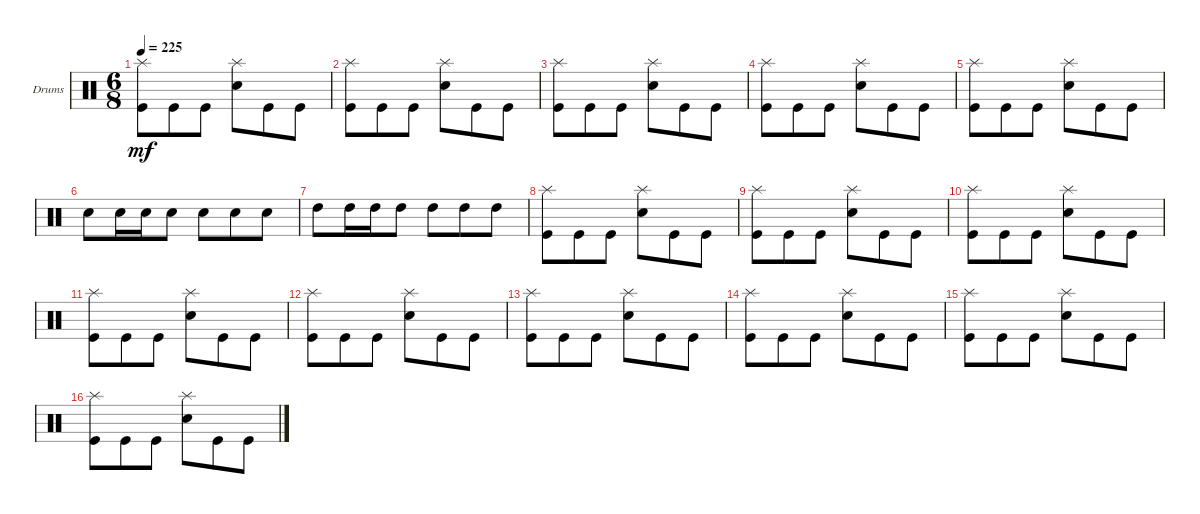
\bracketExtendMode groupsimilarinstruments
\firstSystemTrackNameOrientation horizontal
\otherSystemsTrackNameOrientation horizontal
\track ("Drumkit" "Drums") {solo instrument percussion}
\staff {score}
\articulation defaults
\ts (6 8)
\tempo 225
\clef neutral
\ks c
("Kick (hit)" "Splash (hit)").8{dy mf} "Kick (hit)".8 "Kick (hit)".8 ("Snare (hit) 2" "Splash (hit)").8 "Kick (hit)".8 "Kick (hit)".8 |
("Kick (hit)" "Splash (hit)").8 "Kick (hit)".8 "Kick (hit)".8 ("Snare (hit) 2" "Splash (hit)").8 "Kick (hit)".8 "Kick (hit)".8 |
("Kick (hit)" "Splash (hit)").8 "Kick (hit)".8 "Kick (hit)".8 ("Snare (hit) 2" "Splash (hit)").8 "Kick (hit)".8 "Kick (hit)".8 |
("Kick (hit)" "Splash (hit)").8 "Kick (hit)".8 "Kick (hit)".8 ("Snare (hit) 2" "Splash (hit)").8 "Kick (hit)".8 "Kick (hit)".8 |
("Kick (hit)" "Splash (hit)").8 "Kick (hit)".8 "Kick (hit)".8 ("Snare (hit) 2" "Splash (hit)").8 "Kick (hit)".8 "Kick (hit)".8 |
"Snare (hit) 2".8 "Snare (hit) 2".16 "Snare (hit) 2".16 "Snare (hit) 2".8 "Snare (hit) 2".8 "Snare (hit) 2".8 "Snare (hit) 2".8 |
"High Tom (hit)".8 "High Tom (hit)".16 "High Tom (hit)".16 "High Tom (hit)".8 "High Tom (hit)".8 "High Tom (hit)".8 "High Tom (hit)".8 |
("Kick (hit)" "Splash (hit)").8 "Kick (hit)".8 "Kick (hit)".8 ("Snare (hit) 2" "Splash (hit)").8 "Kick (hit)".8 "Kick (hit)".8 |
("Kick (hit)" "Splash (hit)").8 "Kick (hit)".8 "Kick (hit)".8 ("Snare (hit) 2" "Splash (hit)").8 "Kick (hit)".8 "Kick (hit)".8 |
("Kick (hit)" "Splash (hit)").8 "Kick (hit)".8 "Kick (hit)".8 ("Snare (hit) 2" "Splash (hit)").8 "Kick (hit)".8 "Kick (hit)".8 |
("Kick (hit)" "Splash (hit)").8 "Kick (hit)".8 "Kick (hit)".8 ("Snare (hit) 2" "Splash (hit)").8 "Kick (hit)".8 "Kick (hit)".8 |
("Kick (hit)" "Splash (hit)").8 "Kick (hit)".8 "Kick (hit)".8 ("Snare (hit) 2" "Splash (hit)").8 "Kick (hit)".8 "Kick (hit)".8 |
("Kick (hit)" "Splash (hit)").8 "Kick (hit)".8 "Kick (hit)".8 ("Snare (hit) 2" "Splash (hit)").8 "Kick (hit)".8 "Kick (hit)".8 |
("Kick (hit)" "Splash (hit)").8 "Kick (hit)".8 "Kick (hit)".8 ("Snare (hit) 2" "Splash (hit)").8 "Kick (hit)".8 "Kick (hit)".8 |
("Kick (hit)" "Splash (hit)").8 "Kick (hit)".8 "Kick (hit)".8 ("Snare (hit) 2" "Splash (hit)").8 "Kick (hit)".8 "Kick (hit)".8 |
("Kick (hit)" "Splash (hit)").8 "Kick (hit)".8 "Kick (hit)".8 ("Snare (hit) 2" "Splash (hit)").8 "Kick (hit)".8 "Kick (hit)".8
